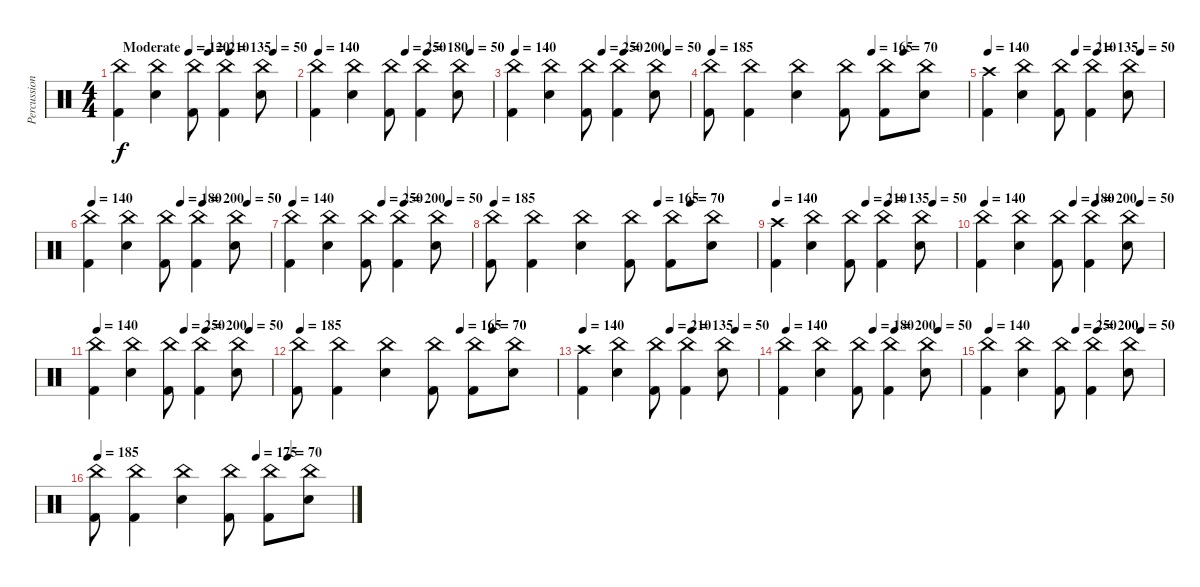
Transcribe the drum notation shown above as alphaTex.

\track ("Percussion" "Percussion") {instrument percussion}
\staff {score}
\articulation defaults
\ts (4 4)
\tempo (120 "Moderate")
\tempo 140
\tempo (210 0.5)
\tempo (400 0.625)
\tempo (50 0.875)
\tempo (135 0.625)
\tempo (120 "Moderate")
\clef neutral
\ks c
("China (hit)" "Kick (hit) 2").4{dy f} ("China (hit)" "Snare (hit) 2").4 ("China (hit)" "Kick (hit) 2").8 ("China (hit)" "Kick (hit) 2").4 ("China (hit)" "Snare (hit) 2").8 |
\tempo 140
\tempo (250 0.5)
\tempo (180 0.625)
\tempo (50 0.875)
("China (hit)" "Kick (hit) 2").4 ("China (hit)" "Snare (hit) 2").4 ("China (hit)" "Kick (hit) 2").8 ("China (hit)" "Kick (hit) 2").4 ("China (hit)" "Snare (hit) 2").8 |
\tempo 140
\tempo (250 0.5)
\tempo (200 0.625)
\tempo (50 0.875)
("China (hit)" "Kick (hit) 2").4 ("China (hit)" "Snare (hit) 2").4 ("China (hit)" "Kick (hit) 2").8 ("China (hit)" "Kick (hit) 2").4 ("China (hit)" "Snare (hit) 2").8 |
\tempo 185
\tempo (165 0.625)
\tempo (70 0.75)
("China (hit)" "Kick (hit) 2").8 ("China (hit)" "Kick (hit) 2").4 ("China (hit)" "Snare (hit) 2").4 ("China (hit)" "Kick (hit) 2").8 ("China (hit)" "Kick (hit) 2").8 ("China (hit)" "Snare (hit) 2").8 |
\tempo 140
\tempo (210 0.5)
\tempo (400 0.625)
\tempo (50 0.875)
\tempo (135 0.625)
("Crash high (hit)" "Kick (hit) 2").4 ("China (hit)" "Snare (hit) 2").4 ("China (hit)" "Kick (hit) 2").8 ("China (hit)" "Kick (hit) 2").4 ("China (hit)" "Snare (hit) 2").8 |
\tempo 140
\tempo (180 0.5)
\tempo (200 0.625)
\tempo (50 0.875)
("China (hit)" "Kick (hit) 2").4 ("China (hit)" "Snare (hit) 2").4 ("China (hit)" "Kick (hit) 2").8 ("China (hit)" "Kick (hit) 2").4 ("China (hit)" "Snare (hit) 2").8 |
\tempo 140
\tempo (250 0.5)
\tempo (200 0.625)
\tempo (50 0.875)
("China (hit)" "Kick (hit) 2").4 ("China (hit)" "Snare (hit) 2").4 ("China (hit)" "Kick (hit) 2").8 ("China (hit)" "Kick (hit) 2").4 ("China (hit)" "Snare (hit) 2").8 |
\tempo 185
\tempo (165 0.625)
\tempo (70 0.75)
("China (hit)" "Kick (hit) 2").8 ("China (hit)" "Kick (hit) 2").4 ("China (hit)" "Snare (hit) 2").4 ("China (hit)" "Kick (hit) 2").8 ("China (hit)" "Kick (hit) 2").8 ("China (hit)" "Snare (hit) 2").8 |
\tempo 140
\tempo (210 0.5)
\tempo (400 0.625)
\tempo (50 0.875)
\tempo (135 0.625)
("Crash high (hit)" "Kick (hit) 2").4 ("China (hit)" "Snare (hit) 2").4 ("China (hit)" "Kick (hit) 2").8 ("China (hit)" "Kick (hit) 2").4 ("China (hit)" "Snare (hit) 2").8 |
\tempo 140
\tempo (180 0.5)
\tempo (200 0.625)
\tempo (50 0.875)
("China (hit)" "Kick (hit) 2").4 ("China (hit)" "Snare (hit) 2").4 ("China (hit)" "Kick (hit) 2").8 ("China (hit)" "Kick (hit) 2").4 ("China (hit)" "Snare (hit) 2").8 |
\tempo 140
\tempo (250 0.5)
\tempo (200 0.625)
\tempo (50 0.875)
("China (hit)" "Kick (hit) 2").4 ("China (hit)" "Snare (hit) 2").4 ("China (hit)" "Kick (hit) 2").8 ("China (hit)" "Kick (hit) 2").4 ("China (hit)" "Snare (hit) 2").8 |
\tempo 185
\tempo (165 0.625)
\tempo (70 0.75)
("China (hit)" "Kick (hit) 2").8 ("China (hit)" "Kick (hit) 2").4 ("China (hit)" "Snare (hit) 2").4 ("China (hit)" "Kick (hit) 2").8 ("China (hit)" "Kick (hit) 2").8 ("China (hit)" "Snare (hit) 2").8 |
\tempo 140
\tempo (210 0.5)
\tempo (400 0.625)
\tempo (50 0.875)
\tempo (135 0.625)
("Crash high (hit)" "Kick (hit) 2").4 ("China (hit)" "Snare (hit) 2").4 ("China (hit)" "Kick (hit) 2").8 ("China (hit)" "Kick (hit) 2").4 ("China (hit)" "Snare (hit) 2").8 |
\tempo 140
\tempo (180 0.5)
\tempo (200 0.625)
\tempo (50 0.875)
("China (hit)" "Kick (hit) 2").4 ("China (hit)" "Snare (hit) 2").4 ("China (hit)" "Kick (hit) 2").8 ("China (hit)" "Kick (hit) 2").4 ("China (hit)" "Snare (hit) 2").8 |
\tempo 140
\tempo (250 0.5)
\tempo (200 0.625)
\tempo (50 0.875)
("China (hit)" "Kick (hit) 2").4 ("China (hit)" "Snare (hit) 2").4 ("China (hit)" "Kick (hit) 2").8 ("China (hit)" "Kick (hit) 2").4 ("China (hit)" "Snare (hit) 2").8 |
\tempo 185
\tempo (175 0.625)
\tempo (70 0.75)
("China (hit)" "Kick (hit) 2").8 ("China (hit)" "Kick (hit) 2").4 ("China (hit)" "Snare (hit) 2").4 ("China (hit)" "Kick (hit) 2").8 ("China (hit)" "Kick (hit) 2").8 ("China (hit)" "Snare (hit) 2").8
